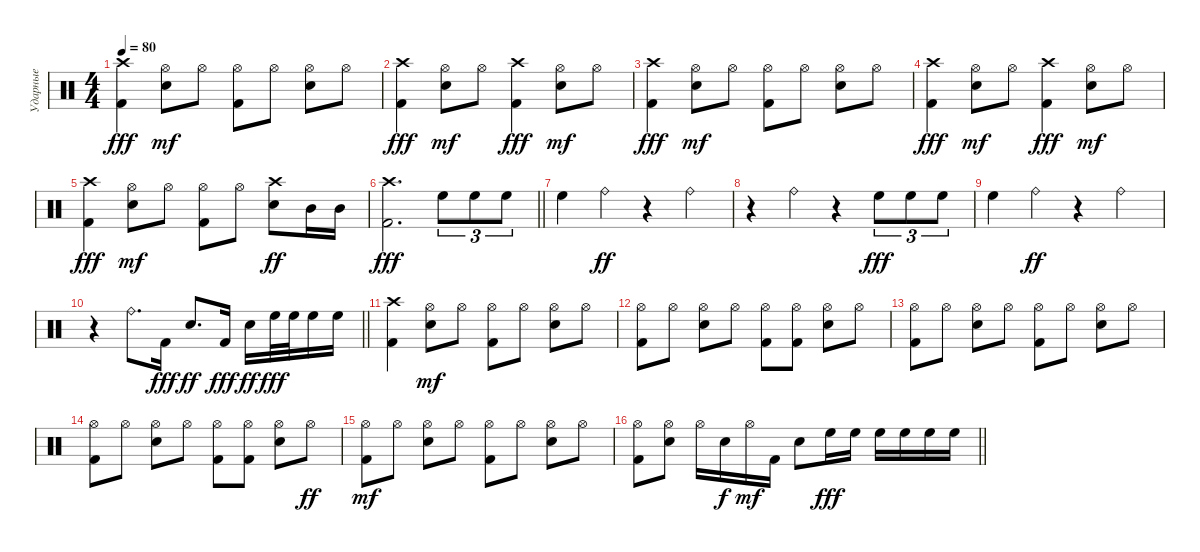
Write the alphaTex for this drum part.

\track ("Ударные" "Ударные") {instrument percussion}
\staff {score}
\articulation defaults
\ts (4 4)
\tempo 80
\clef neutral
\ks c
("Kick (hit) 2" "Crash high (hit)").4{dy fff} ("Snare (hit) 2" "Hi-Hat (open)").8{dy mf} "Hi-Hat (open)".8 ("Kick (hit) 2" "Hi-Hat (open)").8 "Hi-Hat (open)".8 ("Snare (hit) 2" "Hi-Hat (open)").8 "Hi-Hat (open)".8 |
("Kick (hit) 2" "Crash high (hit)").4{dy fff} ("Snare (hit) 2" "Hi-Hat (open)").8{dy mf} "Hi-Hat (open)".8 ("Kick (hit) 2" "Crash high (hit)").4{dy fff} ("Snare (hit) 2" "Hi-Hat (open)").8{dy mf} "Hi-Hat (open)".8 |
("Kick (hit) 2" "Crash high (hit)").4{dy fff} ("Snare (hit) 2" "Hi-Hat (open)").8{dy mf} "Hi-Hat (open)".8 ("Kick (hit) 2" "Hi-Hat (open)").8 "Hi-Hat (open)".8 ("Snare (hit) 2" "Hi-Hat (open)").8 "Hi-Hat (open)".8 |
("Kick (hit) 2" "Crash high (hit)").4{dy fff} ("Snare (hit) 2" "Hi-Hat (open)").8{dy mf} "Hi-Hat (open)".8 ("Kick (hit) 2" "Crash high (hit)").4{dy fff} ("Snare (hit) 2" "Hi-Hat (open)").8{dy mf} "Hi-Hat (open)".8 |
("Kick (hit) 2" "Crash high (hit)").4{dy fff} ("Snare (hit) 2" "Hi-Hat (open)").8{dy mf} "Hi-Hat (open)".8 ("Kick (hit) 2" "Hi-Hat (open)").8 "Hi-Hat (open)".8 ("Snare (hit) 2" "Crash high (hit)").8{dy ff} "Mid Tom (hit)".16 "Mid Tom (hit)".16 |
\barLineRight lightlight
("Kick (hit) 2" "Crash high (hit)").2{d dy fff} "High Floor Tom (hit)".8{tu (3 2)} "High Floor Tom (hit)".8{tu (3 2)} "High Floor Tom (hit)".8{tu (3 2)} |
"High Floor Tom (hit)".4 "Ride (bell)".4{dy ff} r.4 "Ride (bell)".4 |
r.4 "Ride (bell)".4 r.4 "High Floor Tom (hit)".8{tu (3 2) dy fff} "High Floor Tom (hit)".8{tu (3 2)} "High Floor Tom (hit)".8{tu (3 2)} |
"High Floor Tom (hit)".4 "Ride (bell)".4{dy ff} r.4 "Ride (bell)".4 |
\barLineRight lightlight
r.4 "Ride (bell)".8{d} "Kick (hit) 2".16{dy fff} "Snare (hit) 2".8{d dy ff} "Kick (hit) 2".16{dy fff} "Snare (hit) 2".16{dy ff} "High Floor Tom (hit)".32{dy fff} "High Floor Tom (hit)".32 "High Floor Tom (hit)".16 "High Floor Tom (hit)".16 |
("Kick (hit) 2" "Crash high (hit)").4 ("Snare (hit) 2" "Hi-Hat (open)").8{dy mf} "Hi-Hat (open)".8 ("Kick (hit) 2" "Hi-Hat (open)").8 "Hi-Hat (open)".8 ("Snare (hit) 2" "Hi-Hat (open)").8 "Hi-Hat (open)".8 |
("Kick (hit) 2" "Hi-Hat (open)").8 "Hi-Hat (open)".8 ("Snare (hit) 2" "Hi-Hat (open)").8 "Hi-Hat (open)".8 ("Kick (hit) 2" "Hi-Hat (open)").8 ("Kick (hit) 2" "Hi-Hat (open)").8 ("Snare (hit) 2" "Hi-Hat (open)").8 "Hi-Hat (open)".8 |
("Kick (hit) 2" "Hi-Hat (open)").8 "Hi-Hat (open)".8 ("Snare (hit) 2" "Hi-Hat (open)").8 "Hi-Hat (open)".8 ("Kick (hit) 2" "Hi-Hat (open)").8 "Hi-Hat (open)".8 ("Snare (hit) 2" "Hi-Hat (open)").8 "Hi-Hat (open)".8 |
("Kick (hit) 2" "Hi-Hat (open)").8 "Hi-Hat (open)".8 ("Snare (hit) 2" "Hi-Hat (open)").8 "Hi-Hat (open)".8 ("Kick (hit) 2" "Hi-Hat (open)").8 ("Kick (hit) 2" "Hi-Hat (open)").8 ("Snare (hit) 2" "Hi-Hat (open)").8 "Hi-Hat (open)".8{dy ff} |
("Kick (hit) 2" "Hi-Hat (open)").8{dy mf} "Hi-Hat (open)".8 ("Snare (hit) 2" "Hi-Hat (open)").8 "Hi-Hat (open)".8 ("Kick (hit) 2" "Hi-Hat (open)").8 "Hi-Hat (open)".8 ("Snare (hit) 2" "Hi-Hat (open)").8 "Hi-Hat (open)".8 |
\barLineRight lightlight
("Kick (hit) 2" "Hi-Hat (open)").8 ("Snare (hit) 2" "Hi-Hat (open)").8 "Hi-Hat (open)".16 "Snare (hit) 2".16{dy f} "Hi-Hat (open)".16{dy mf} "Kick (hit) 2".16 "Snare (hit) 2".8 "High Floor Tom (hit)".16{dy fff} "High Floor Tom (hit)".16 "High Floor Tom (hit)".16 "High Floor Tom (hit)".16 "High Floor Tom (hit)".16 "High Floor Tom (hit)".16
